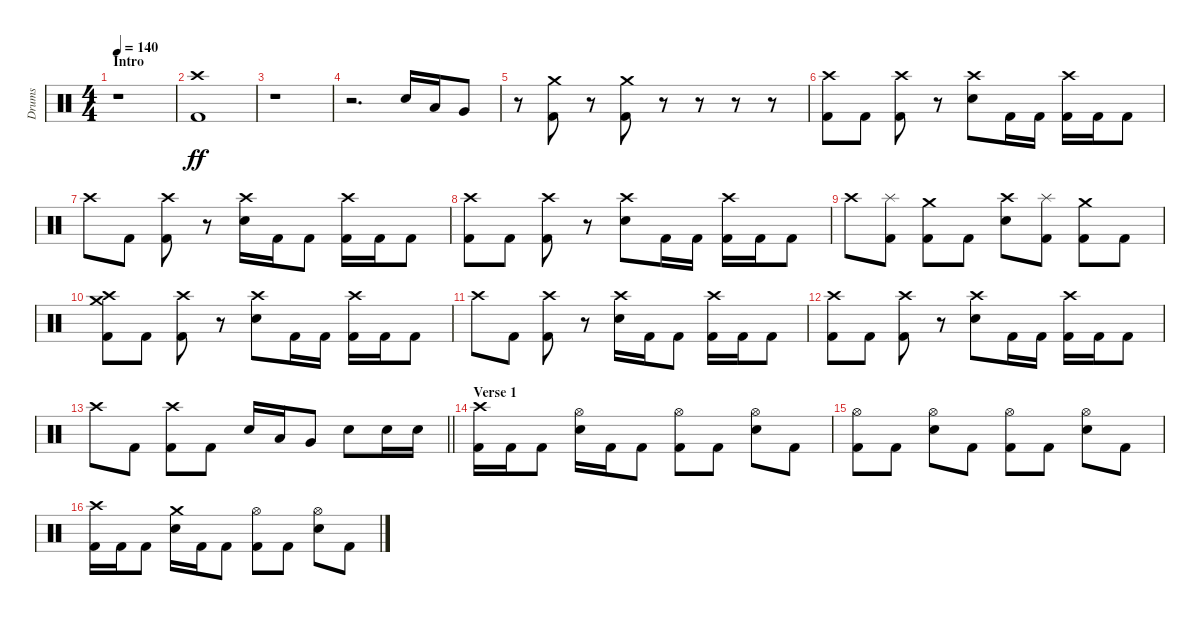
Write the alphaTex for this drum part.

\track ("Drums" "Drums") {instrument percussion}
\staff {score}
\articulation defaults
\ts (4 4)
\section ("" "Intro")
\tempo 140
\clef neutral
\ks c
r.1{dy ff} |
("Crash high (hit)" "Kick (hit) 2").1 |
r.1 |
r.2{d} "Electric Snare (hit)".16 "Low Tom (hit)".16 "Very Low Tom (hit)".8 |
r.8 ("Crash medium (hit)" "Kick (hit) 2").8 r.8 ("Crash medium (hit)" "Kick (hit) 2").8 r.8 r.8 r.8 r.8 |
("Crash high (hit)" "Kick (hit) 2").8 "Kick (hit) 2".8 ("Crash high (hit)" "Kick (hit) 2").8 r.8 ("Crash high (hit)" "Electric Snare (hit)").8 "Kick (hit) 2".16 "Kick (hit) 2".16 ("Crash high (hit)" "Kick (hit) 2").16 "Kick (hit) 2".16 "Kick (hit) 2".8 |
"Crash high (hit)".8 "Kick (hit) 2".8 ("Crash high (hit)" "Kick (hit) 2").8 r.8 ("Crash high (hit)" "Electric Snare (hit)").16 "Kick (hit) 2".16 "Kick (hit) 2".8 ("Crash high (hit)" "Kick (hit) 2").16 "Kick (hit) 2".16 "Kick (hit) 2".8 |
("Crash high (hit)" "Kick (hit) 2").8 "Kick (hit) 2".8 ("Crash high (hit)" "Kick (hit) 2").8 r.8 ("Crash high (hit)" "Electric Snare (hit)").8 "Kick (hit) 2".16 "Kick (hit) 2".16 ("Crash high (hit)" "Kick (hit) 2").16 "Kick (hit) 2".16 "Kick (hit) 2".8 |
"Crash high (hit)".8 ("Splash (hit)" "Kick (hit) 2").8 ("Crash medium (hit)" "Kick (hit) 2").8 "Kick (hit) 2".8 ("Crash high (hit)" "Electric Snare (hit)").8 ("Splash (hit)" "Kick (hit) 2").8 ("Crash medium (hit)" "Kick (hit) 2").8 "Kick (hit) 2".8 |
("Crash medium (hit)" "Crash high (hit)" "Kick (hit) 2").8 "Kick (hit) 2".8 ("Crash high (hit)" "Kick (hit) 2").8 r.8 ("Crash high (hit)" "Electric Snare (hit)").8 "Kick (hit) 2".16 "Kick (hit) 2".16 ("Crash high (hit)" "Kick (hit) 2").16 "Kick (hit) 2".16 "Kick (hit) 2".8 |
"Crash high (hit)".8 "Kick (hit) 2".8 ("Crash high (hit)" "Kick (hit) 2").8 r.8 ("Crash high (hit)" "Electric Snare (hit)").16 "Kick (hit) 2".16 "Kick (hit) 2".8 ("Crash high (hit)" "Kick (hit) 2").16 "Kick (hit) 2".16 "Kick (hit) 2".8 |
("Crash high (hit)" "Kick (hit) 2").8 "Kick (hit) 2".8 ("Crash high (hit)" "Kick (hit) 2").8 r.8 ("Crash high (hit)" "Electric Snare (hit)").8 "Kick (hit) 2".16 "Kick (hit) 2".16 ("Crash high (hit)" "Kick (hit) 2").16 "Kick (hit) 2".16 "Kick (hit) 2".8 |
\barLineRight lightlight "Crash high (hit)".8 "Kick (hit) 2".8
("Crash high (hit)" "Kick (hit) 2").8 "Kick (hit) 2".8 "Electric Snare (hit)".16 "Low Tom (hit)".16 "Very Low Tom (hit)".8 "Electric Snare (hit)".8 "Electric Snare (hit)".16 "Electric Snare (hit)".16 |
\section ("" "Verse 1")
("Crash high (hit)" "Kick (hit) 2").16 "Kick (hit) 2".16 "Kick (hit) 2".8 ("Hi-Hat (open)" "Electric Snare (hit)").16 "Kick (hit) 2".16 "Kick (hit) 2".8 ("Hi-Hat (open)" "Kick (hit) 2").8 "Kick (hit) 2".8 ("Hi-Hat (open)" "Electric Snare (hit)").8 "Kick (hit) 2".8 |
("Hi-Hat (open)" "Kick (hit) 2").8 "Kick (hit) 2".8 ("Hi-Hat (open)" "Electric Snare (hit)").8 "Kick (hit) 2".8 ("Hi-Hat (open)" "Kick (hit) 2").8 "Kick (hit) 2".8 ("Hi-Hat (open)" "Electric Snare (hit)").8 "Kick (hit) 2".8 |
("Crash high (hit)" "Kick (hit) 2").16 "Kick (hit) 2".16 "Kick (hit) 2".8 ("Crash medium (hit)" "Electric Snare (hit)").16 "Kick (hit) 2".16 "Kick (hit) 2".8 ("Hi-Hat (open)" "Kick (hit) 2").8 "Kick (hit) 2".8 ("Hi-Hat (open)" "Electric Snare (hit)").8 "Kick (hit) 2".8
